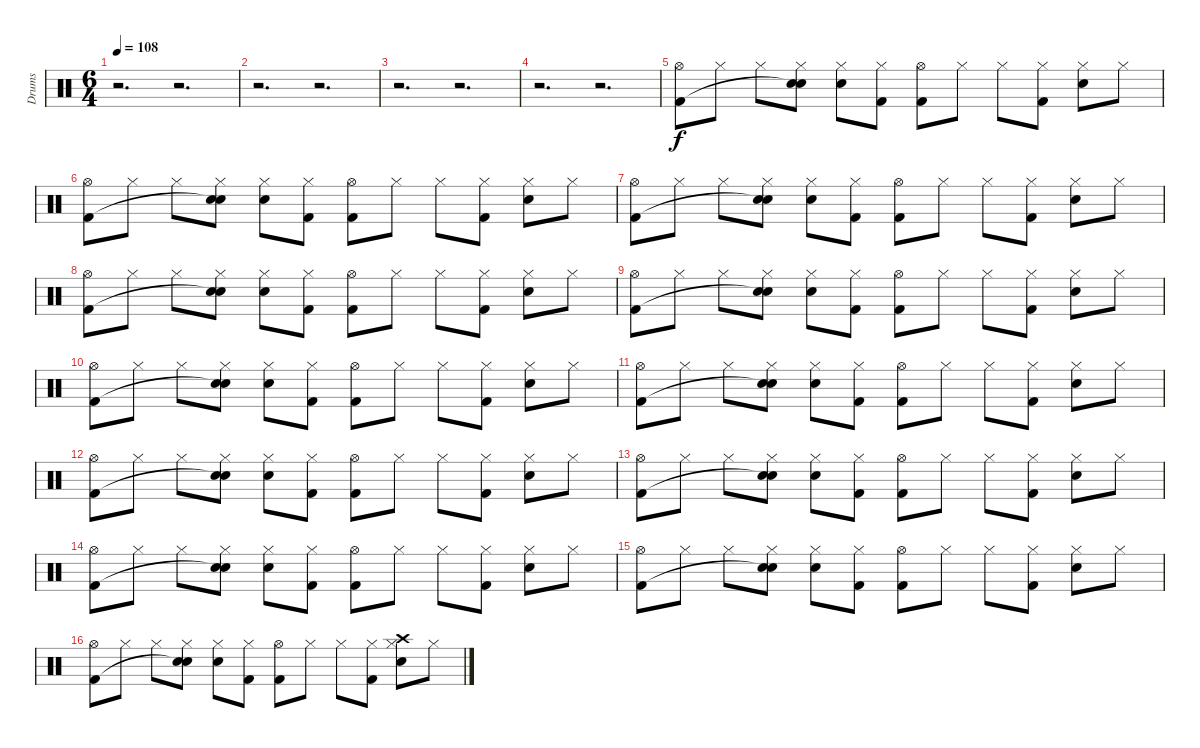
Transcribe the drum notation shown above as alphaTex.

\track ("Drums" "Drums") {instrument percussion}
\staff {score}
\articulation defaults
\ts (6 4)
\tempo 108
\clef neutral
\ks c
r.2{d dy f} r.2{d} |
r.2{d} r.2{d} |
r.2{d} r.2{d} |
r.2{d} r.2{d} |
("Hi-Hat (open)" "Kick (hit) 2").8 "Hi-Hat (closed)".8 "Hi-Hat (closed)".8 ("Hi-Hat (closed)" "Snare (hit)"{t} "Snare (hit) 2").8 ("Hi-Hat (closed)" "Snare (hit) 2").8 ("Hi-Hat (closed)" "Kick (hit) 2").8 ("Hi-Hat (open)" "Kick (hit) 2").8 "Hi-Hat (closed)".8 "Hi-Hat (closed)".8 ("Hi-Hat (closed)" "Kick (hit) 2").8 ("Hi-Hat (closed)" "Snare (hit) 2").8 "Hi-Hat (closed)".8 |
("Hi-Hat (open)" "Kick (hit) 2").8 "Hi-Hat (closed)".8 "Hi-Hat (closed)".8 ("Hi-Hat (closed)" "Snare (hit)"{t} "Snare (hit) 2").8 ("Hi-Hat (closed)" "Snare (hit) 2").8 ("Hi-Hat (closed)" "Kick (hit) 2").8 ("Hi-Hat (open)" "Kick (hit) 2").8 "Hi-Hat (closed)".8 "Hi-Hat (closed)".8 ("Hi-Hat (closed)" "Kick (hit) 2").8 ("Hi-Hat (closed)" "Snare (hit) 2").8 "Hi-Hat (closed)".8 |
("Hi-Hat (open)" "Kick (hit) 2").8 "Hi-Hat (closed)".8 "Hi-Hat (closed)".8 ("Hi-Hat (closed)" "Snare (hit)"{t} "Snare (hit) 2").8 ("Hi-Hat (closed)" "Snare (hit) 2").8 ("Hi-Hat (closed)" "Kick (hit) 2").8 ("Hi-Hat (open)" "Kick (hit) 2").8 "Hi-Hat (closed)".8 "Hi-Hat (closed)".8 ("Hi-Hat (closed)" "Kick (hit) 2").8 ("Hi-Hat (closed)" "Snare (hit) 2").8 "Hi-Hat (closed)".8 |
("Hi-Hat (open)" "Kick (hit) 2").8 "Hi-Hat (closed)".8 "Hi-Hat (closed)".8 ("Hi-Hat (closed)" "Snare (hit)"{t} "Snare (hit) 2").8 ("Hi-Hat (closed)" "Snare (hit) 2").8 ("Hi-Hat (closed)" "Kick (hit) 2").8 ("Hi-Hat (open)" "Kick (hit) 2").8 "Hi-Hat (closed)".8 "Hi-Hat (closed)".8 ("Hi-Hat (closed)" "Kick (hit) 2").8 ("Hi-Hat (closed)" "Snare (hit) 2").8 "Hi-Hat (closed)".8 |
("Hi-Hat (open)" "Kick (hit) 2").8 "Hi-Hat (closed)".8 "Hi-Hat (closed)".8 ("Hi-Hat (closed)" "Snare (hit)"{t} "Snare (hit) 2").8 ("Hi-Hat (closed)" "Snare (hit) 2").8 ("Hi-Hat (closed)" "Kick (hit) 2").8 ("Hi-Hat (open)" "Kick (hit) 2").8 "Hi-Hat (closed)".8 "Hi-Hat (closed)".8 ("Hi-Hat (closed)" "Kick (hit) 2").8 ("Hi-Hat (closed)" "Snare (hit) 2").8 "Hi-Hat (closed)".8 |
("Hi-Hat (open)" "Kick (hit) 2").8 "Hi-Hat (closed)".8 "Hi-Hat (closed)".8 ("Hi-Hat (closed)" "Snare (hit)"{t} "Snare (hit) 2").8 ("Hi-Hat (closed)" "Snare (hit) 2").8 ("Hi-Hat (closed)" "Kick (hit) 2").8 ("Hi-Hat (open)" "Kick (hit) 2").8 "Hi-Hat (closed)".8 "Hi-Hat (closed)".8 ("Hi-Hat (closed)" "Kick (hit) 2").8 ("Hi-Hat (closed)" "Snare (hit) 2").8 "Hi-Hat (closed)".8 |
("Hi-Hat (open)" "Kick (hit) 2").8 "Hi-Hat (closed)".8 "Hi-Hat (closed)".8 ("Hi-Hat (closed)" "Snare (hit)"{t} "Snare (hit) 2").8 ("Hi-Hat (closed)" "Snare (hit) 2").8 ("Hi-Hat (closed)" "Kick (hit) 2").8 ("Hi-Hat (open)" "Kick (hit) 2").8 "Hi-Hat (closed)".8 "Hi-Hat (closed)".8 ("Hi-Hat (closed)" "Kick (hit) 2").8 ("Hi-Hat (closed)" "Snare (hit) 2").8 "Hi-Hat (closed)".8 |
("Hi-Hat (open)" "Kick (hit) 2").8 "Hi-Hat (closed)".8 "Hi-Hat (closed)".8 ("Hi-Hat (closed)" "Snare (hit)"{t} "Snare (hit) 2").8 ("Hi-Hat (closed)" "Snare (hit) 2").8 ("Hi-Hat (closed)" "Kick (hit) 2").8 ("Hi-Hat (open)" "Kick (hit) 2").8 "Hi-Hat (closed)".8 "Hi-Hat (closed)".8 ("Hi-Hat (closed)" "Kick (hit) 2").8 ("Hi-Hat (closed)" "Snare (hit) 2").8 "Hi-Hat (closed)".8 |
("Hi-Hat (open)" "Kick (hit) 2").8 "Hi-Hat (closed)".8 "Hi-Hat (closed)".8 ("Hi-Hat (closed)" "Snare (hit)"{t} "Snare (hit) 2").8 ("Hi-Hat (closed)" "Snare (hit) 2").8 ("Hi-Hat (closed)" "Kick (hit) 2").8 ("Hi-Hat (open)" "Kick (hit) 2").8 "Hi-Hat (closed)".8 "Hi-Hat (closed)".8 ("Hi-Hat (closed)" "Kick (hit) 2").8 ("Hi-Hat (closed)" "Snare (hit) 2").8 "Hi-Hat (closed)".8 |
("Hi-Hat (open)" "Kick (hit) 2").8 "Hi-Hat (closed)".8 "Hi-Hat (closed)".8 ("Hi-Hat (closed)" "Snare (hit)"{t} "Snare (hit) 2").8 ("Hi-Hat (closed)" "Snare (hit) 2").8 ("Hi-Hat (closed)" "Kick (hit) 2").8 ("Hi-Hat (open)" "Kick (hit) 2").8 "Hi-Hat (closed)".8 "Hi-Hat (closed)".8 ("Hi-Hat (closed)" "Kick (hit) 2").8 ("Hi-Hat (closed)" "Snare (hit) 2").8 "Hi-Hat (closed)".8 |
("Hi-Hat (open)" "Kick (hit) 2").8 "Hi-Hat (closed)".8 "Hi-Hat (closed)".8 ("Hi-Hat (closed)" "Snare (hit)"{t} "Snare (hit) 2").8 ("Hi-Hat (closed)" "Snare (hit) 2").8 ("Hi-Hat (closed)" "Kick (hit) 2").8 ("Hi-Hat (open)" "Kick (hit) 2").8 "Hi-Hat (closed)".8 "Hi-Hat (closed)".8 ("Hi-Hat (closed)" "Kick (hit) 2").8 ("Hi-Hat (closed)" "Snare (hit) 2").8 "Hi-Hat (closed)".8 |
("Hi-Hat (open)" "Kick (hit) 2").8 "Hi-Hat (closed)".8 "Hi-Hat (closed)".8 ("Hi-Hat (closed)" "Snare (hit)"{t} "Snare (hit) 2").8 ("Hi-Hat (closed)" "Snare (hit) 2").8 ("Hi-Hat (closed)" "Kick (hit) 2").8 ("Hi-Hat (open)" "Kick (hit) 2").8 "Hi-Hat (closed)".8 "Hi-Hat (closed)".8 ("Hi-Hat (closed)" "Kick (hit) 2").8 ("Hi-Hat (closed)" "Crash high (hit)" "Snare (hit) 2").8 "Hi-Hat (closed)".8
